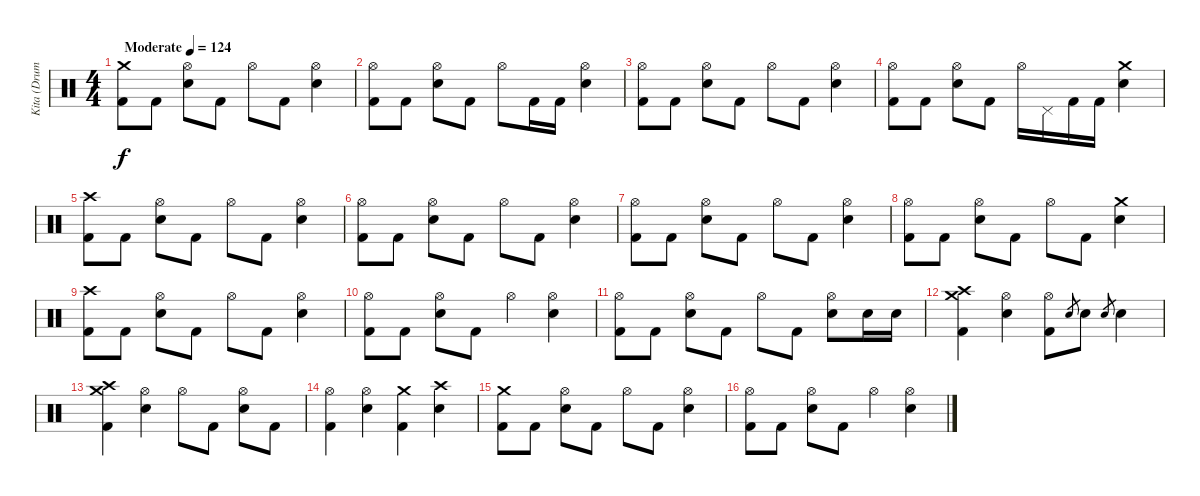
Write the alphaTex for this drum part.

\track ("Kita (Drums)" "Kita (Drum") {instrument percussion}
\staff {score}
\articulation defaults
\ts (4 4)
\tempo (124 "Moderate")
\clef neutral
\ks c
("Crash medium (hit)" "Kick (hit) 2").8{dy f} "Kick (hit) 2".8 ("Hi-Hat (open)" "Electric Snare (hit)").8 "Kick (hit) 2".8 "Hi-Hat (open)".8 "Kick (hit) 2".8 ("Hi-Hat (open)" "Electric Snare (hit)").4 |
("Hi-Hat (open)" "Kick (hit) 2").8 "Kick (hit) 2".8 ("Hi-Hat (open)" "Electric Snare (hit)").8 "Kick (hit) 2".8 "Hi-Hat (open)".8 "Kick (hit) 2".16 "Kick (hit) 2".16 ("Hi-Hat (open)" "Electric Snare (hit)").4 |
("Hi-Hat (open)" "Kick (hit) 2").8 "Kick (hit) 2".8 ("Hi-Hat (open)" "Electric Snare (hit)").8 "Kick (hit) 2".8 "Hi-Hat (open)".8 "Kick (hit) 2".8 ("Hi-Hat (open)" "Electric Snare (hit)").4 |
("Hi-Hat (open)" "Kick (hit) 2").8 "Kick (hit) 2".8 ("Hi-Hat (open)" "Electric Snare (hit)").8 "Kick (hit) 2".8 "Hi-Hat (open)".16 "Pedal Hi-Hat (hit)".16 "Kick (hit) 2".16 "Kick (hit) 2".16 ("Crash medium (hit)" "Electric Snare (hit)").4 |
("Crash high (hit)" "Kick (hit) 2").8 "Kick (hit) 2".8 ("Hi-Hat (open)" "Electric Snare (hit)").8 "Kick (hit) 2".8 "Hi-Hat (open)".8 "Kick (hit) 2".8 ("Hi-Hat (open)" "Electric Snare (hit)").4 |
("Hi-Hat (open)" "Kick (hit) 2").8 "Kick (hit) 2".8 ("Hi-Hat (open)" "Electric Snare (hit)").8 "Kick (hit) 2".8 "Hi-Hat (open)".8 "Kick (hit) 2".8 ("Hi-Hat (open)" "Electric Snare (hit)").4 |
("Hi-Hat (open)" "Kick (hit) 2").8 "Kick (hit) 2".8 ("Hi-Hat (open)" "Electric Snare (hit)").8 "Kick (hit) 2".8 "Hi-Hat (open)".8 "Kick (hit) 2".8 ("Hi-Hat (open)" "Electric Snare (hit)").4 |
("Hi-Hat (open)" "Kick (hit) 2").8 "Kick (hit) 2".8 ("Hi-Hat (open)" "Electric Snare (hit)").8 "Kick (hit) 2".8 "Hi-Hat (open)".8 "Kick (hit) 2".8 ("Crash medium (hit)" "Electric Snare (hit)").4 |
("Crash high (hit)" "Kick (hit) 2").8 "Kick (hit) 2".8 ("Hi-Hat (open)" "Electric Snare (hit)").8 "Kick (hit) 2".8 "Hi-Hat (open)".8 "Kick (hit) 2".8 ("Hi-Hat (open)" "Electric Snare (hit)").4 |
("Hi-Hat (open)" "Kick (hit) 2").8 "Kick (hit) 2".8 ("Hi-Hat (open)" "Electric Snare (hit)").8 "Kick (hit) 2".8 "Hi-Hat (open)".4 ("Hi-Hat (open)" "Electric Snare (hit)").4 |
("Hi-Hat (open)" "Kick (hit) 2").8 "Kick (hit) 2".8 ("Hi-Hat (open)" "Electric Snare (hit)").8 "Kick (hit) 2".8 "Hi-Hat (open)".8 "Kick (hit) 2".8 ("Hi-Hat (open)" "Electric Snare (hit)").8 "Electric Snare (hit)".16 "Electric Snare (hit)".16 |
("Crash medium (hit)" "Crash high (hit)" "Kick (hit) 2").4 ("Hi-Hat (open)" "Electric Snare (hit)").4 ("Hi-Hat (open)" "Kick (hit) 2").8 "Electric Snare (hit)".8{gr} "Electric Snare (hit)".8 "Electric Snare (hit)".8{gr} "Electric Snare (hit)".4 |
("Crash medium (hit)" "Crash high (hit)" "Kick (hit) 2").4 ("Hi-Hat (open)" "Electric Snare (hit)").4 "Hi-Hat (open)".8 "Kick (hit) 2".8 ("Hi-Hat (open)" "Electric Snare (hit)").8 "Kick (hit) 2".8 |
("Hi-Hat (open)" "Kick (hit) 2").4 ("Hi-Hat (open)" "Electric Snare (hit)").4 ("Crash medium (hit)" "Kick (hit) 2").4 ("Crash high (hit)" "Electric Snare (hit)").4 |
("Crash medium (hit)" "Kick (hit) 2").8 "Kick (hit) 2".8 ("Hi-Hat (open)" "Electric Snare (hit)").8 "Kick (hit) 2".8 "Hi-Hat (open)".8 "Kick (hit) 2".8 ("Hi-Hat (open)" "Electric Snare (hit)").4 |
("Hi-Hat (open)" "Kick (hit) 2").8 "Kick (hit) 2".8 ("Hi-Hat (open)" "Electric Snare (hit)").8 "Kick (hit) 2".8 "Hi-Hat (open)".4 ("Hi-Hat (open)" "Electric Snare (hit)").4
